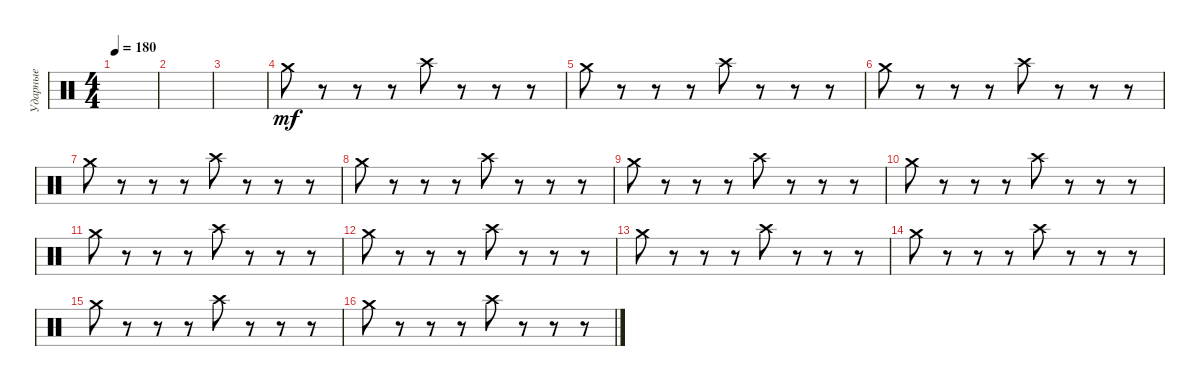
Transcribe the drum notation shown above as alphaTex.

\track ("Ударные" "Ударные") {instrument percussion}
\staff {score}
\articulation defaults
\ts (4 4)
\tempo 180
\clef neutral
\ks c
|
|
|
"Crash medium (hit)".8{dy mf} r.8 r.8 r.8 "Crash high (hit)".8 r.8 r.8 r.8 |
"Crash medium (hit)".8 r.8 r.8 r.8 "Crash high (hit)".8 r.8 r.8 r.8 |
"Crash medium (hit)".8 r.8 r.8 r.8 "Crash high (hit)".8 r.8 r.8 r.8 |
"Crash medium (hit)".8 r.8 r.8 r.8 "Crash high (hit)".8 r.8 r.8 r.8 |
"Crash medium (hit)".8 r.8 r.8 r.8 "Crash high (hit)".8 r.8 r.8 r.8 |
"Crash medium (hit)".8 r.8 r.8 r.8 "Crash high (hit)".8 r.8 r.8 r.8 |
"Crash medium (hit)".8 r.8 r.8 r.8 "Crash high (hit)".8 r.8 r.8 r.8 |
"Crash medium (hit)".8 r.8 r.8 r.8 "Crash high (hit)".8 r.8 r.8 r.8 |
"Crash medium (hit)".8 r.8 r.8 r.8 "Crash high (hit)".8 r.8 r.8 r.8 |
"Crash medium (hit)".8 r.8 r.8 r.8 "Crash high (hit)".8 r.8 r.8 r.8 |
"Crash medium (hit)".8 r.8 r.8 r.8 "Crash high (hit)".8 r.8 r.8 r.8 |
"Crash medium (hit)".8 r.8 r.8 r.8 "Crash high (hit)".8 r.8 r.8 r.8 |
"Crash medium (hit)".8 r.8 r.8 r.8 "Crash high (hit)".8 r.8 r.8 r.8
